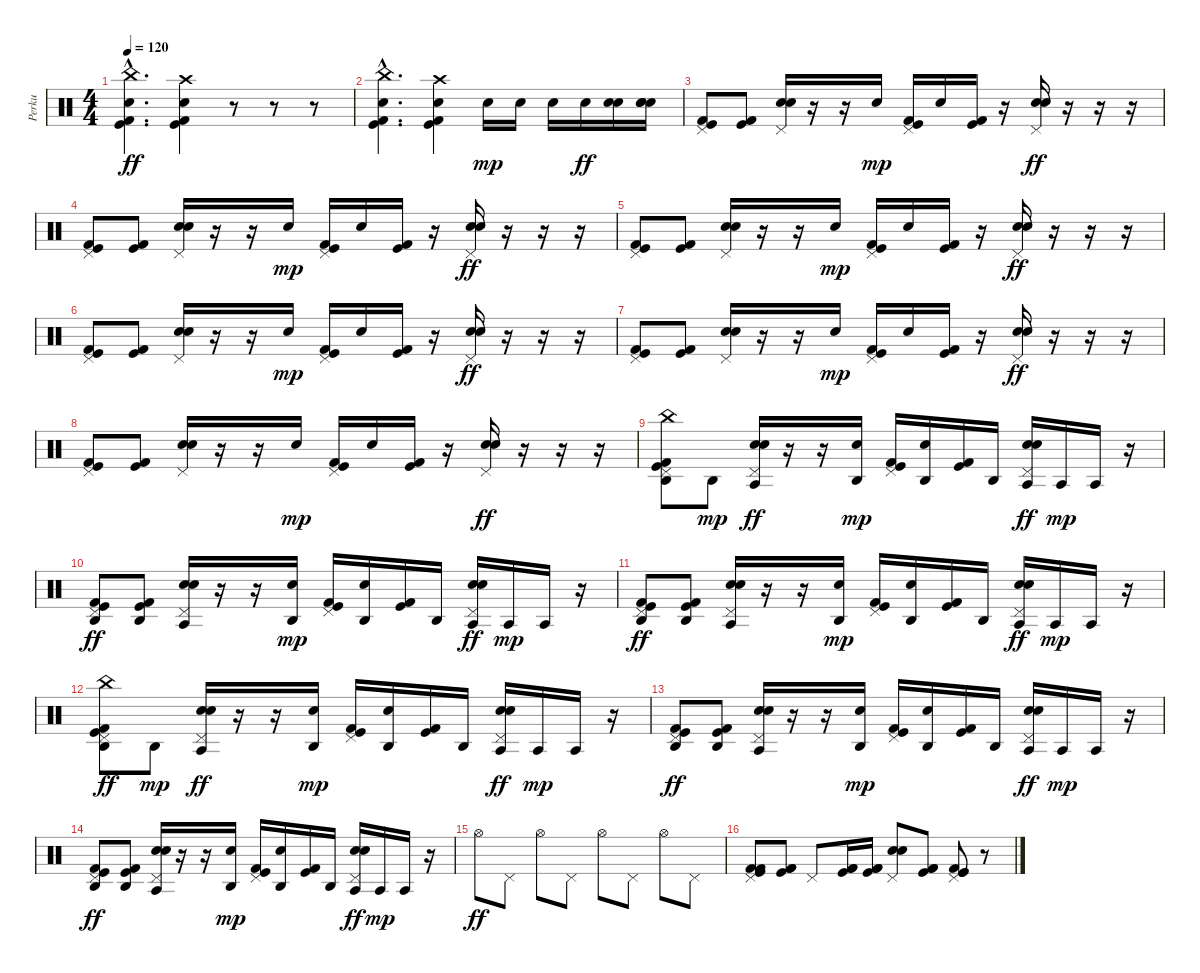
\track ("Perku" "Perku") {instrument percussion}
\staff {score}
\articulation defaults
\ts (4 4)
\tempo 120
\clef neutral
\ks c
("China (hit)"{hac} "Electric Snare (hit)"{hac} "Kick (hit) 2"{hac} "Kick (hit)"{hac}).4{d dy ff} ("Crash high (hit)" "Electric Snare (hit)" "Kick (hit) 2" "Kick (hit)").4 r.8 r.8 r.8 |
("China (hit)"{hac} "Electric Snare (hit)"{hac} "Kick (hit) 2"{hac} "Kick (hit)"{hac}).4{d} ("Crash high (hit)" "Electric Snare (hit)" "Kick (hit) 2" "Kick (hit)").4 "Electric Snare (hit)".16{dy mp} "Electric Snare (hit)".16 "Electric Snare (hit)".16 "Electric Snare (hit)".16{dy ff} ("Electric Snare (hit)" "Electric Snare (hit)").16 ("Electric Snare (hit)" "Electric Snare (hit)" "Electric Snare (hit)").16 |
("Pedal Hi-Hat (hit)" "Kick (hit) 2" "Kick (hit)").8 ("Kick (hit) 2" "Kick (hit)").8 ("Pedal Hi-Hat (hit)" "Electric Snare (hit)" "Electric Snare (hit)").16 r.16 r.16 "Electric Snare (hit)".16{dy mp} ("Pedal Hi-Hat (hit)" "Kick (hit) 2" "Kick (hit)").16 "Electric Snare (hit)".16 ("Kick (hit) 2" "Kick (hit)").16 r.16 ("Pedal Hi-Hat (hit)" "Electric Snare (hit)" "Electric Snare (hit)").16{dy ff} r.16 r.16 r.16 |
("Pedal Hi-Hat (hit)" "Kick (hit) 2" "Kick (hit)").8 ("Kick (hit) 2" "Kick (hit)").8 ("Pedal Hi-Hat (hit)" "Electric Snare (hit)" "Electric Snare (hit)").16 r.16 r.16 "Electric Snare (hit)".16{dy mp} ("Pedal Hi-Hat (hit)" "Kick (hit) 2" "Kick (hit)").16 "Electric Snare (hit)".16 ("Kick (hit) 2" "Kick (hit)").16 r.16 ("Pedal Hi-Hat (hit)" "Electric Snare (hit)" "Electric Snare (hit)").16{dy ff} r.16 r.16 r.16 |
("Pedal Hi-Hat (hit)" "Kick (hit) 2" "Kick (hit)").8 ("Kick (hit) 2" "Kick (hit)").8 ("Pedal Hi-Hat (hit)" "Electric Snare (hit)" "Electric Snare (hit)").16 r.16 r.16 "Electric Snare (hit)".16{dy mp} ("Pedal Hi-Hat (hit)" "Kick (hit) 2" "Kick (hit)").16 "Electric Snare (hit)".16 ("Kick (hit) 2" "Kick (hit)").16 r.16 ("Pedal Hi-Hat (hit)" "Electric Snare (hit)" "Electric Snare (hit)").16{dy ff} r.16 r.16 r.16 |
("Pedal Hi-Hat (hit)" "Kick (hit) 2" "Kick (hit)").8 ("Kick (hit) 2" "Kick (hit)").8 ("Pedal Hi-Hat (hit)" "Electric Snare (hit)" "Electric Snare (hit)").16 r.16 r.16 "Electric Snare (hit)".16{dy mp} ("Pedal Hi-Hat (hit)" "Kick (hit) 2" "Kick (hit)").16 "Electric Snare (hit)".16 ("Kick (hit) 2" "Kick (hit)").16 r.16 ("Pedal Hi-Hat (hit)" "Electric Snare (hit)" "Electric Snare (hit)").16{dy ff} r.16 r.16 r.16 |
("Pedal Hi-Hat (hit)" "Kick (hit) 2" "Kick (hit)").8 ("Kick (hit) 2" "Kick (hit)").8 ("Pedal Hi-Hat (hit)" "Electric Snare (hit)" "Electric Snare (hit)").16 r.16 r.16 "Electric Snare (hit)".16{dy mp} ("Pedal Hi-Hat (hit)" "Kick (hit) 2" "Kick (hit)").16 "Electric Snare (hit)".16 ("Kick (hit) 2" "Kick (hit)").16 r.16 ("Pedal Hi-Hat (hit)" "Electric Snare (hit)" "Electric Snare (hit)").16{dy ff} r.16 r.16 r.16 |
("Pedal Hi-Hat (hit)" "Kick (hit) 2" "Kick (hit)").8 ("Kick (hit) 2" "Kick (hit)").8 ("Pedal Hi-Hat (hit)" "Electric Snare (hit)" "Electric Snare (hit)").16 r.16 r.16 "Electric Snare (hit)".16{dy mp} ("Pedal Hi-Hat (hit)" "Kick (hit) 2" "Kick (hit)").16 "Electric Snare (hit)".16 ("Kick (hit) 2" "Kick (hit)").16 r.16 ("Pedal Hi-Hat (hit)" "Electric Snare (hit)" "Electric Snare (hit)").16{dy ff} r.16 r.16 r.16 |
("Agogo high (hit)" "China (hit)" "Pedal Hi-Hat (hit)" "Kick (hit) 2" "Kick (hit)").8 "Agogo high (hit)".8{dy mp} ("Agogo tow (hit)" "Pedal Hi-Hat (hit)" "Electric Snare (hit)" "Electric Snare (hit)").16{dy ff} r.16 r.16 ("Agogo high (hit)" "Electric Snare (hit)").16{dy mp} ("Pedal Hi-Hat (hit)" "Kick (hit) 2" "Kick (hit)").16 ("Agogo high (hit)" "Electric Snare (hit)").16 ("Kick (hit) 2" "Kick (hit)").16 "Agogo high (hit)".16 ("Agogo tow (hit)" "Pedal Hi-Hat (hit)" "Electric Snare (hit)" "Electric Snare (hit)").16{dy ff} "Agogo tow (hit)".16{dy mp} "Agogo tow (hit)".16 r.16 |
("Agogo high (hit)" "Pedal Hi-Hat (hit)" "Kick (hit) 2" "Kick (hit)").8{dy ff} ("Agogo high (hit)" "Kick (hit) 2" "Kick (hit)").8 ("Agogo tow (hit)" "Pedal Hi-Hat (hit)" "Electric Snare (hit)" "Electric Snare (hit)").16 r.16 r.16 ("Agogo high (hit)" "Electric Snare (hit)").16{dy mp} ("Pedal Hi-Hat (hit)" "Kick (hit) 2" "Kick (hit)").16 ("Agogo high (hit)" "Electric Snare (hit)").16 ("Kick (hit) 2" "Kick (hit)").16 "Agogo high (hit)".16 ("Agogo tow (hit)" "Pedal Hi-Hat (hit)" "Electric Snare (hit)" "Electric Snare (hit)").16{dy ff} "Agogo tow (hit)".16{dy mp} "Agogo tow (hit)".16 r.16 |
("Agogo high (hit)" "Pedal Hi-Hat (hit)" "Kick (hit) 2" "Kick (hit)").8{dy ff} ("Agogo high (hit)" "Kick (hit)" "Kick (hit) 2").8 ("Agogo tow (hit)" "Pedal Hi-Hat (hit)" "Electric Snare (hit)" "Electric Snare (hit)").16 r.16 r.16 ("Agogo high (hit)" "Electric Snare (hit)").16{dy mp} ("Pedal Hi-Hat (hit)" "Kick (hit) 2" "Kick (hit)").16 ("Agogo high (hit)" "Electric Snare (hit)").16 ("Kick (hit) 2" "Kick (hit)").16 "Agogo high (hit)".16 ("Agogo tow (hit)" "Pedal Hi-Hat (hit)" "Electric Snare (hit)" "Electric Snare (hit)").16{dy ff} "Agogo tow (hit)".16{dy mp} "Agogo tow (hit)".16 r.16 |
("Agogo high (hit)" "China (hit)" "Pedal Hi-Hat (hit)" "Kick (hit) 2" "Kick (hit)").8{dy ff} "Agogo high (hit)".8{dy mp} ("Agogo tow (hit)" "Pedal Hi-Hat (hit)" "Electric Snare (hit)" "Electric Snare (hit)").16{dy ff} r.16 r.16 ("Agogo high (hit)" "Electric Snare (hit)").16{dy mp} ("Pedal Hi-Hat (hit)" "Kick (hit) 2" "Kick (hit)").16 ("Agogo high (hit)" "Electric Snare (hit)").16 ("Kick (hit) 2" "Kick (hit)").16 "Agogo high (hit)".16 ("Agogo tow (hit)" "Pedal Hi-Hat (hit)" "Electric Snare (hit)" "Electric Snare (hit)").16{dy ff} "Agogo tow (hit)".16{dy mp} "Agogo tow (hit)".16 r.16 |
("Agogo high (hit)" "Pedal Hi-Hat (hit)" "Kick (hit) 2" "Kick (hit)").8{dy ff} ("Agogo high (hit)" "Kick (hit) 2" "Kick (hit)").8 ("Agogo tow (hit)" "Pedal Hi-Hat (hit)" "Electric Snare (hit)" "Electric Snare (hit)").16 r.16 r.16 ("Agogo high (hit)" "Electric Snare (hit)").16{dy mp} ("Pedal Hi-Hat (hit)" "Kick (hit) 2" "Kick (hit)").16 ("Agogo high (hit)" "Electric Snare (hit)").16 ("Kick (hit) 2" "Kick (hit)").16 "Agogo high (hit)".16 ("Agogo tow (hit)" "Pedal Hi-Hat (hit)" "Electric Snare (hit)" "Electric Snare (hit)").16{dy ff} "Agogo tow (hit)".16{dy mp} "Agogo tow (hit)".16 r.16 |
("Agogo high (hit)" "Pedal Hi-Hat (hit)" "Kick (hit) 2" "Kick (hit)").8{dy ff} ("Agogo high (hit)" "Kick (hit)" "Kick (hit) 2").8 ("Agogo tow (hit)" "Pedal Hi-Hat (hit)" "Electric Snare (hit)" "Electric Snare (hit)").16 r.16 r.16 ("Agogo high (hit)" "Electric Snare (hit)").16{dy mp} ("Pedal Hi-Hat (hit)" "Kick (hit) 2" "Kick (hit)").16 ("Agogo high (hit)" "Electric Snare (hit)").16 ("Kick (hit) 2" "Kick (hit)").16 "Agogo high (hit)".16 ("Agogo tow (hit)" "Pedal Hi-Hat (hit)" "Electric Snare (hit)" "Electric Snare (hit)").16{dy ff} "Agogo tow (hit)".16{dy mp} "Agogo tow (hit)".16 r.16 |
"Hi-Hat (open)".8{dy ff} "Pedal Hi-Hat (hit)".8 "Hi-Hat (open)".8 "Pedal Hi-Hat (hit)".8 "Hi-Hat (open)".8 "Pedal Hi-Hat (hit)".8 "Hi-Hat (open)".8 "Pedal Hi-Hat (hit)".8 |
("Pedal Hi-Hat (hit)" "Kick (hit) 2" "Kick (hit) 2" "Kick (hit)").8 ("Kick (hit) 2" "Kick (hit)" "Kick (hit) 2").8 "Pedal Hi-Hat (hit)".8 ("Kick (hit) 2" "Kick (hit) 2" "Kick (hit)").16 ("Kick (hit) 2" "Kick (hit)" "Kick (hit) 2").16 ("Pedal Hi-Hat (hit)" "Electric Snare (hit)" "Electric Snare (hit)").8 ("Kick (hit) 2" "Kick (hit)" "Kick (hit) 2").8 ("Pedal Hi-Hat (hit)" "Kick (hit) 2" "Kick (hit)" "Kick (hit)").8 r.8
